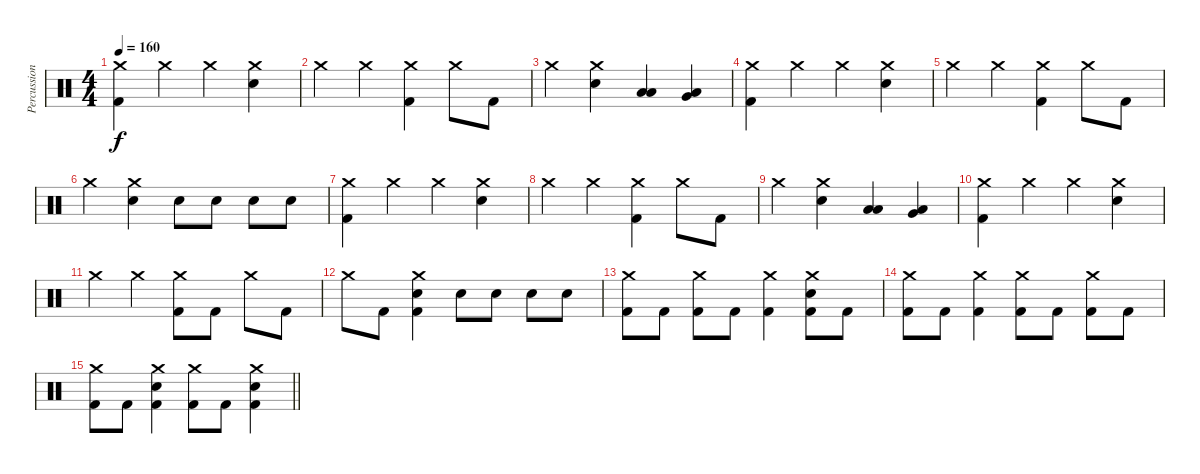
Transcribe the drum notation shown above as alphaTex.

\track ("Percussions" "Percussion") {instrument percussion}
\staff {score}
\articulation defaults
\ts (4 4)
\tempo 160
\clef neutral
\ks c
("Crash medium (hit)" "Kick (hit) 2").4{dy f} "Crash medium (hit)".4 "Crash medium (hit)".4 ("Crash medium (hit)" "Electric Snare (hit)").4 |
"Crash medium (hit)".4 "Crash medium (hit)".4 ("Crash medium (hit)" "Kick (hit) 2").4 "Crash medium (hit)".8 "Kick (hit) 2".8 |
"Crash medium (hit)".4 ("Crash medium (hit)" "Electric Snare (hit)").4 ("Low Floor Tom (hit)" "Low Tom (hit)").4 ("Low Floor Tom (hit)" "Very Low Tom (hit)").4 |
("Crash medium (hit)" "Kick (hit) 2").4 "Crash medium (hit)".4 "Crash medium (hit)".4 ("Crash medium (hit)" "Electric Snare (hit)").4 |
"Crash medium (hit)".4 "Crash medium (hit)".4 ("Crash medium (hit)" "Kick (hit) 2").4 "Crash medium (hit)".8 "Kick (hit) 2".8 |
"Crash medium (hit)".4 ("Crash medium (hit)" "Electric Snare (hit)").4 "Electric Snare (hit)".8 "Electric Snare (hit)".8 "Electric Snare (hit)".8 "Electric Snare (hit)".8 |
("Crash medium (hit)" "Kick (hit) 2").4 "Crash medium (hit)".4 "Crash medium (hit)".4 ("Crash medium (hit)" "Electric Snare (hit)").4 |
"Crash medium (hit)".4 "Crash medium (hit)".4 ("Crash medium (hit)" "Kick (hit) 2").4 "Crash medium (hit)".8 "Kick (hit) 2".8 |
"Crash medium (hit)".4 ("Crash medium (hit)" "Electric Snare (hit)").4 ("Low Floor Tom (hit)" "Low Tom (hit)").4 ("Low Floor Tom (hit)" "Very Low Tom (hit)").4 |
("Crash medium (hit)" "Kick (hit) 2").4 "Crash medium (hit)".4 "Crash medium (hit)".4 ("Crash medium (hit)" "Electric Snare (hit)").4 |
"Crash medium (hit)".4 "Crash medium (hit)".4 ("Crash medium (hit)" "Kick (hit) 2").8 "Kick (hit) 2".8 "Crash medium (hit)".8 "Kick (hit) 2".8 |
"Crash medium (hit)".8 "Kick (hit) 2".8 ("Crash medium (hit)" "Electric Snare (hit)" "Kick (hit) 2").4 "Electric Snare (hit)".8 "Electric Snare (hit)".8 "Electric Snare (hit)".8 "Electric Snare (hit)".8 |
("Crash medium (hit)" "Kick (hit) 2").8 "Kick (hit) 2".8 ("Crash medium (hit)" "Kick (hit) 2").8 "Kick (hit) 2".8 ("Crash medium (hit)" "Kick (hit) 2").4 ("Crash medium (hit)" "Electric Snare (hit)" "Kick (hit) 2").8 "Kick (hit) 2".8 |
("Crash medium (hit)" "Kick (hit) 2").8 "Kick (hit) 2".8 ("Crash medium (hit)" "Kick (hit) 2").4 ("Crash medium (hit)" "Kick (hit) 2").8 "Kick (hit) 2".8 ("Crash medium (hit)" "Kick (hit) 2").8 "Kick (hit) 2".8 |
\barLineRight lightlight
("Crash medium (hit)" "Kick (hit) 2").8 "Kick (hit) 2".8 ("Crash medium (hit)" "Electric Snare (hit)" "Kick (hit) 2").4 ("Crash medium (hit)" "Kick (hit) 2").8 "Kick (hit) 2".8 ("Crash medium (hit)" "Electric Snare (hit)" "Kick (hit) 2").4
